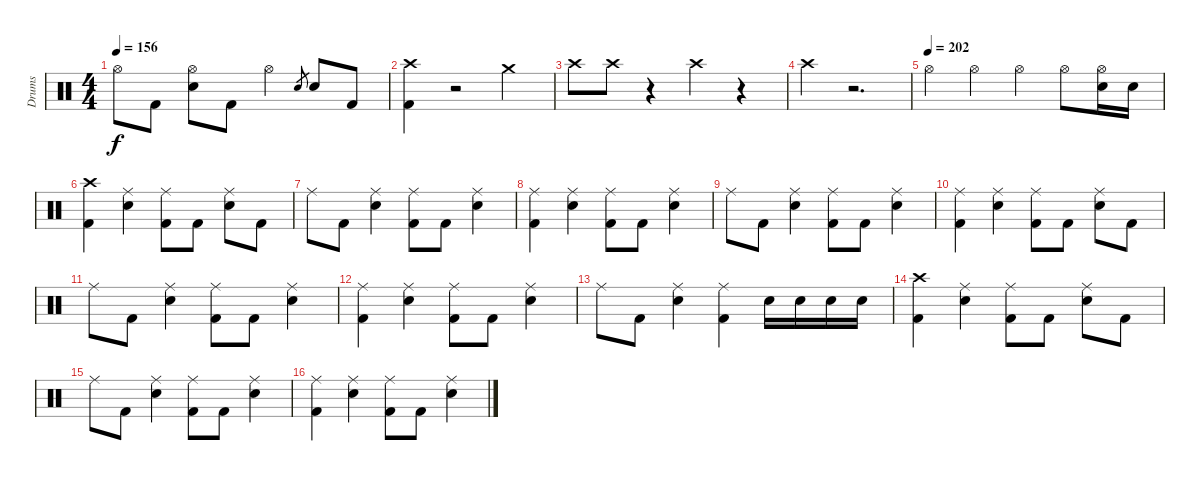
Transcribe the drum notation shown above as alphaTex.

\track ("Drums" "Drums") {instrument percussion}
\staff {score}
\articulation defaults
\ts (4 4)
\tempo 156
\clef neutral
\ks c "Hi-Hat (open)".8{dy f} "Kick (hit) 2".8
("Hi-Hat (open)" "Electric Snare (hit)").8 "Kick (hit) 2".8 "Hi-Hat (open)".4 "Electric Snare (hit)".8{gr} "Electric Snare (hit)".8 "Kick (hit) 2".8 |
("Crash high (hit)" "Kick (hit) 2").4 r.2 "Crash medium (hit)".4 |
"Crash high (hit)".8 "Crash high (hit)".8 r.4 "Crash high (hit)".4 r.4 |
"Crash high (hit)".4 r.2{d} |
\tempo (202)
"Hi-Hat (open)".4 "Hi-Hat (open)".4 "Hi-Hat (open)".4 "Hi-Hat (open)".8 ("Hi-Hat (open)" "Electric Snare (hit)").16 "Electric Snare (hit)".16 |
("Crash high (hit)" "Kick (hit) 2").4 ("Ride (middle)" "Electric Snare (hit)").4 ("Ride (middle)" "Kick (hit) 2").8 "Kick (hit) 2".8 ("Ride (middle)" "Electric Snare (hit)").8 "Kick (hit) 2".8 |
"Ride (middle)".8 "Kick (hit) 2".8 ("Ride (middle)" "Electric Snare (hit)").4 ("Ride (middle)" "Kick (hit) 2").8 "Kick (hit) 2".8 ("Ride (middle)" "Electric Snare (hit)").4 |
("Ride (middle)" "Kick (hit) 2").4 ("Ride (middle)" "Electric Snare (hit)").4 ("Ride (middle)" "Kick (hit) 2").8 "Kick (hit) 2".8 ("Ride (middle)" "Electric Snare (hit)").4 |
"Ride (middle)".8 "Kick (hit) 2".8 ("Ride (middle)" "Electric Snare (hit)").4 ("Ride (middle)" "Kick (hit) 2").8 "Kick (hit) 2".8 ("Ride (middle)" "Electric Snare (hit)").4 |
("Ride (middle)" "Kick (hit) 2").4 ("Ride (middle)" "Electric Snare (hit)").4 ("Ride (middle)" "Kick (hit) 2").8 "Kick (hit) 2".8 ("Ride (middle)" "Electric Snare (hit)").8 "Kick (hit) 2".8 |
"Ride (middle)".8 "Kick (hit) 2".8 ("Ride (middle)" "Electric Snare (hit)").4 ("Ride (middle)" "Kick (hit) 2").8 "Kick (hit) 2".8 ("Ride (middle)" "Electric Snare (hit)").4 |
("Ride (middle)" "Kick (hit) 2").4 ("Ride (middle)" "Electric Snare (hit)").4 ("Ride (middle)" "Kick (hit) 2").8 "Kick (hit) 2".8 ("Ride (middle)" "Electric Snare (hit)").4 |
"Ride (middle)".8 "Kick (hit) 2".8 ("Ride (middle)" "Electric Snare (hit)").4 ("Ride (middle)" "Kick (hit) 2").4 "Electric Snare (hit)".16 "Electric Snare (hit)".16 "Electric Snare (hit)".16 "Electric Snare (hit)".16 |
("Crash high (hit)" "Kick (hit) 2").4 ("Ride (middle)" "Electric Snare (hit)").4 ("Ride (middle)" "Kick (hit) 2").8 "Kick (hit) 2".8 ("Ride (middle)" "Electric Snare (hit)").8 "Kick (hit) 2".8 |
"Ride (middle)".8 "Kick (hit) 2".8 ("Ride (middle)" "Electric Snare (hit)").4 ("Ride (middle)" "Kick (hit) 2").8 "Kick (hit) 2".8 ("Ride (middle)" "Electric Snare (hit)").4 |
("Ride (middle)" "Kick (hit) 2").4 ("Ride (middle)" "Electric Snare (hit)").4 ("Ride (middle)" "Kick (hit) 2").8 "Kick (hit) 2".8 ("Ride (middle)" "Electric Snare (hit)").4
